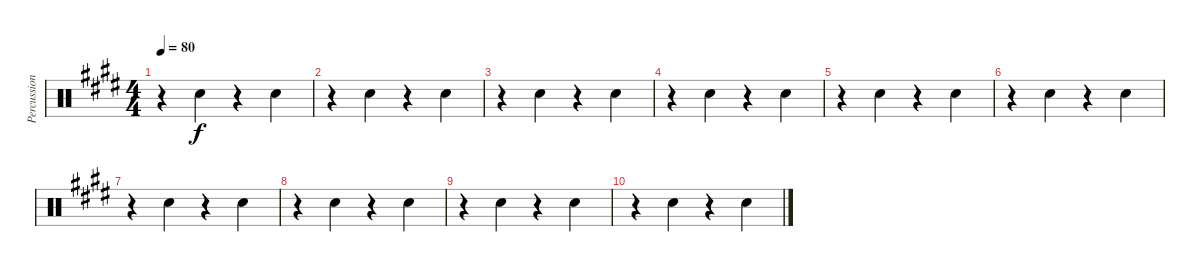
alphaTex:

\track ("Percussion" "Percussion") {instrument percussion}
\staff {score}
\articulation defaults
\ts (4 4)
\tempo 80
\clef neutral
\ks c#minor
r.4{dy f} "Hand Clap (hit)".4 r.4 "Hand Clap (hit)".4 |
r.4 "Hand Clap (hit)".4 r.4 "Hand Clap (hit)".4 |
r.4 "Hand Clap (hit)".4 r.4 "Hand Clap (hit)".4 |
r.4 "Hand Clap (hit)".4 r.4 "Hand Clap (hit)".4 |
r.4 "Hand Clap (hit)".4 r.4 "Hand Clap (hit)".4 |
r.4 "Hand Clap (hit)".4 r.4 "Hand Clap (hit)".4 |
r.4 "Hand Clap (hit)".4 r.4 "Hand Clap (hit)".4 |
r.4 "Hand Clap (hit)".4 r.4 "Hand Clap (hit)".4 |
r.4 "Hand Clap (hit)".4 r.4 "Hand Clap (hit)".4 |
r.4 "Hand Clap (hit)".4 r.4 "Hand Clap (hit)".4
